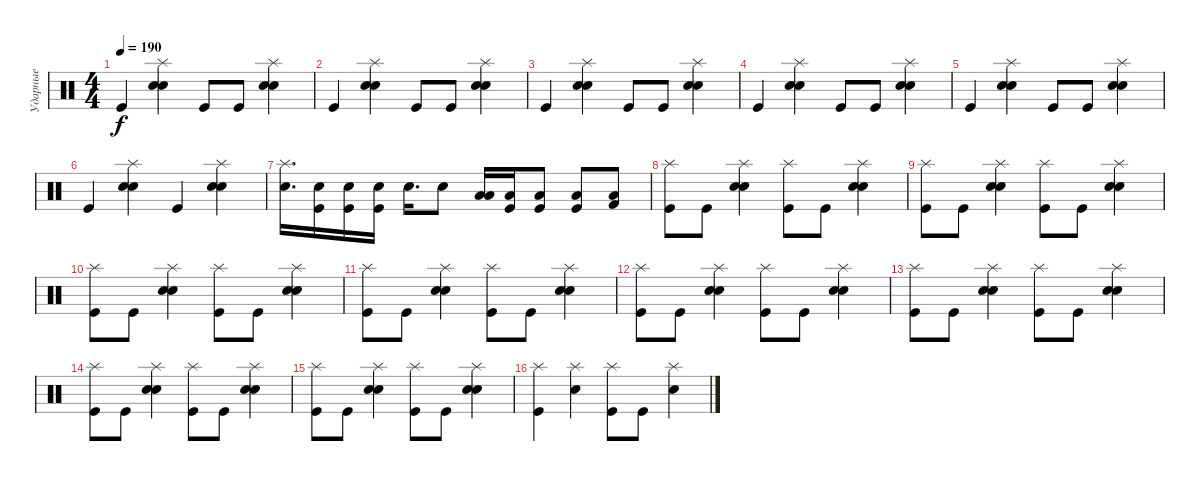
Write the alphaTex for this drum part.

\track ("Ударные" "Ударные") {instrument percussion}
\staff {score}
\articulation defaults
\ts (4 4)
\tempo 190
\clef neutral
\ks c "Kick (hit)".4{dy f}
("Splash (hit)" "Snare (hit) 2" "Electric Snare (hit)").4 "Kick (hit)".8 "Kick (hit)".8 ("Splash (hit)" "Snare (hit) 2" "Electric Snare (hit)").4 |
"Kick (hit)".4 ("Splash (hit)" "Snare (hit) 2" "Electric Snare (hit)").4 "Kick (hit)".8 "Kick (hit)".8 ("Splash (hit)" "Snare (hit) 2" "Electric Snare (hit)").4 |
"Kick (hit)".4 ("Splash (hit)" "Snare (hit) 2" "Electric Snare (hit)").4 "Kick (hit)".8 "Kick (hit)".8 ("Splash (hit)" "Snare (hit) 2" "Electric Snare (hit)").4 |
"Kick (hit)".4 ("Splash (hit)" "Snare (hit) 2" "Electric Snare (hit)").4 "Kick (hit)".8 "Kick (hit)".8 ("Splash (hit)" "Snare (hit) 2" "Electric Snare (hit)").4 |
"Kick (hit)".4 ("Splash (hit)" "Snare (hit) 2" "Electric Snare (hit)").4 "Kick (hit)".8 "Kick (hit)".8 ("Splash (hit)" "Snare (hit) 2" "Electric Snare (hit)").4 |
"Kick (hit)".4 ("Splash (hit)" "Snare (hit) 2" "Electric Snare (hit)").4 "Kick (hit)".4 ("Splash (hit)" "Snare (hit) 2" "Electric Snare (hit)").4 |
("Electric Snare (hit)" "Splash (hit)").16{d} ("Electric Snare (hit)" "Kick (hit)").16 ("Electric Snare (hit)" "Kick (hit)").16 ("Electric Snare (hit)" "Kick (hit)").16 "Electric Snare (hit)".16{d} "Electric Snare (hit)".8 ("Low Floor Tom (hit)" "Low Floor Tom (hit)").16 ("Low Floor Tom (hit)" "Kick (hit)").16 ("Low Floor Tom (hit)" "Kick (hit)").8 ("Low Floor Tom (hit)" "Kick (hit)").8 ("Low Floor Tom (hit)" "Kick (hit) 2").8 |
("Splash (hit)" "Kick (hit)").8 "Kick (hit)".8 ("Splash (hit)" "Snare (hit) 2" "Electric Snare (hit)").4 ("Splash (hit)" "Kick (hit)").8 "Kick (hit)".8 ("Splash (hit)" "Snare (hit) 2" "Electric Snare (hit)").4 |
("Splash (hit)" "Kick (hit)").8 "Kick (hit)".8 ("Splash (hit)" "Snare (hit) 2" "Electric Snare (hit)").4 ("Splash (hit)" "Kick (hit)").8 "Kick (hit)".8 ("Splash (hit)" "Snare (hit) 2" "Electric Snare (hit)").4 |
("Splash (hit)" "Kick (hit)").8 "Kick (hit)".8 ("Splash (hit)" "Snare (hit) 2" "Electric Snare (hit)").4 ("Splash (hit)" "Kick (hit)").8 "Kick (hit)".8 ("Splash (hit)" "Snare (hit) 2" "Electric Snare (hit)").4 |
("Splash (hit)" "Kick (hit)").8 "Kick (hit)".8 ("Splash (hit)" "Snare (hit) 2" "Electric Snare (hit)").4 ("Splash (hit)" "Kick (hit)").8 "Kick (hit)".8 ("Splash (hit)" "Snare (hit) 2" "Electric Snare (hit)").4 |
("Splash (hit)" "Kick (hit)").8 "Kick (hit)".8 ("Splash (hit)" "Snare (hit) 2" "Electric Snare (hit)").4 ("Splash (hit)" "Kick (hit)").8 "Kick (hit)".8 ("Splash (hit)" "Snare (hit) 2" "Electric Snare (hit)").4 |
("Splash (hit)" "Kick (hit)").8 "Kick (hit)".8 ("Splash (hit)" "Snare (hit) 2" "Electric Snare (hit)").4 ("Splash (hit)" "Kick (hit)").8 "Kick (hit)".8 ("Splash (hit)" "Snare (hit) 2" "Electric Snare (hit)").4 |
("Splash (hit)" "Kick (hit)").8 "Kick (hit)".8 ("Splash (hit)" "Snare (hit) 2" "Electric Snare (hit)").4 ("Splash (hit)" "Kick (hit)").8 "Kick (hit)".8 ("Splash (hit)" "Snare (hit) 2" "Electric Snare (hit)").4 |
("Splash (hit)" "Kick (hit)").8 "Kick (hit)".8 ("Splash (hit)" "Snare (hit) 2" "Electric Snare (hit)").4 ("Splash (hit)" "Kick (hit)").8 "Kick (hit)".8 ("Splash (hit)" "Snare (hit) 2" "Electric Snare (hit)").4 |
("Splash (hit)" "Kick (hit)").4 ("Splash (hit)" "Electric Snare (hit)").4 ("Splash (hit)" "Kick (hit)").8 "Kick (hit)".8 ("Splash (hit)" "Electric Snare (hit)").4
